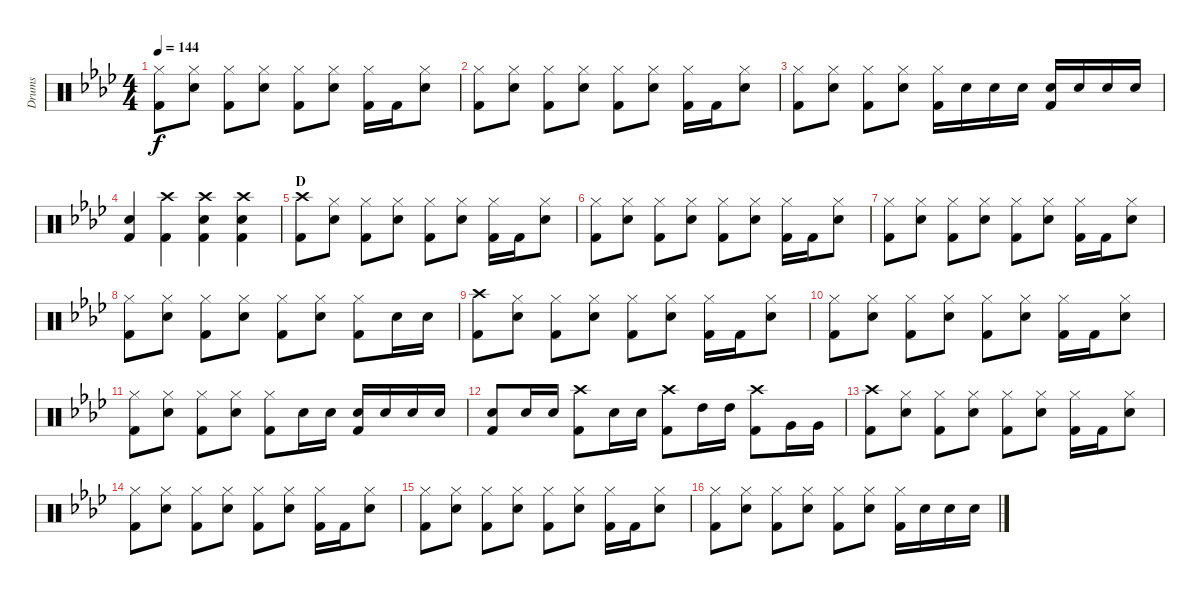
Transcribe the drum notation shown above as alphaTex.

\track ("Drums" "Drums") {instrument percussion}
\staff {score}
\articulation defaults
\ts (4 4)
\tempo 144
\clef neutral
\ks ab
("Hi-Hat (closed)" "Kick (hit) 2").8{dy f} ("Hi-Hat (closed)" "Snare (hit) 2").8 ("Hi-Hat (closed)" "Kick (hit) 2").8 ("Hi-Hat (closed)" "Snare (hit) 2").8 ("Hi-Hat (closed)" "Kick (hit) 2").8 ("Hi-Hat (closed)" "Snare (hit) 2").8 ("Hi-Hat (closed)" "Kick (hit) 2").16 "Kick (hit) 2".16 ("Hi-Hat (closed)" "Snare (hit) 2").8 |
("Hi-Hat (closed)" "Kick (hit) 2").8 ("Hi-Hat (closed)" "Snare (hit) 2").8 ("Hi-Hat (closed)" "Kick (hit) 2").8 ("Hi-Hat (closed)" "Snare (hit) 2").8 ("Hi-Hat (closed)" "Kick (hit) 2").8 ("Hi-Hat (closed)" "Snare (hit) 2").8 ("Hi-Hat (closed)" "Kick (hit) 2").16 "Kick (hit) 2".16 ("Hi-Hat (closed)" "Snare (hit) 2").8 |
("Hi-Hat (closed)" "Kick (hit) 2").8 ("Hi-Hat (closed)" "Snare (hit) 2").8 ("Hi-Hat (closed)" "Kick (hit) 2").8 ("Hi-Hat (closed)" "Snare (hit) 2").8 ("Hi-Hat (closed)" "Kick (hit) 2").16 "Snare (hit) 2".16 "Snare (hit) 2".16 "Snare (hit) 2".16 ("Snare (hit) 2" "Kick (hit) 2").16 "Snare (hit) 2".16 "Snare (hit) 2".16 "Snare (hit) 2".16 |
("Snare (hit) 2" "Kick (hit) 2").4 ("Crash high (hit)" "Kick (hit) 2").4 ("Crash high (hit)" "Snare (hit) 2" "Kick (hit) 2").4 ("Crash high (hit)" "Snare (hit) 2" "Kick (hit) 2").4 |
\section ("" "D")
("Crash high (hit)" "Kick (hit) 2").8 ("Hi-Hat (closed)" "Snare (hit) 2").8 ("Hi-Hat (closed)" "Kick (hit) 2").8 ("Hi-Hat (closed)" "Snare (hit) 2").8 ("Hi-Hat (closed)" "Kick (hit) 2").8 ("Hi-Hat (closed)" "Snare (hit) 2").8 ("Hi-Hat (closed)" "Kick (hit) 2").16 "Kick (hit) 2".16 ("Hi-Hat (closed)" "Snare (hit) 2").8 |
("Hi-Hat (closed)" "Kick (hit) 2").8 ("Hi-Hat (closed)" "Snare (hit) 2").8 ("Hi-Hat (closed)" "Kick (hit) 2").8 ("Hi-Hat (closed)" "Snare (hit) 2").8 ("Hi-Hat (closed)" "Kick (hit) 2").8 ("Hi-Hat (closed)" "Snare (hit) 2").8 ("Hi-Hat (closed)" "Kick (hit) 2").16 "Kick (hit) 2".16 ("Hi-Hat (closed)" "Snare (hit) 2").8 |
("Hi-Hat (closed)" "Kick (hit) 2").8 ("Hi-Hat (closed)" "Snare (hit) 2").8 ("Hi-Hat (closed)" "Kick (hit) 2").8 ("Hi-Hat (closed)" "Snare (hit) 2").8 ("Hi-Hat (closed)" "Kick (hit) 2").8 ("Hi-Hat (closed)" "Snare (hit) 2").8 ("Hi-Hat (closed)" "Kick (hit) 2").16 "Kick (hit) 2".16 ("Hi-Hat (closed)" "Snare (hit) 2").8 |
("Hi-Hat (closed)" "Kick (hit) 2").8 ("Hi-Hat (closed)" "Snare (hit) 2").8 ("Hi-Hat (closed)" "Kick (hit) 2").8 ("Hi-Hat (closed)" "Snare (hit) 2").8 ("Hi-Hat (closed)" "Kick (hit) 2").8 ("Hi-Hat (closed)" "Snare (hit) 2").8 ("Hi-Hat (closed)" "Kick (hit) 2").8 "Snare (hit) 2".16 "Snare (hit) 2".16 |
("Crash high (hit)" "Kick (hit) 2").8 ("Hi-Hat (closed)" "Snare (hit) 2").8 ("Hi-Hat (closed)" "Kick (hit) 2").8 ("Hi-Hat (closed)" "Snare (hit) 2").8 ("Hi-Hat (closed)" "Kick (hit) 2").8 ("Hi-Hat (closed)" "Snare (hit) 2").8 ("Hi-Hat (closed)" "Kick (hit) 2").16 "Kick (hit) 2".16 ("Hi-Hat (closed)" "Snare (hit) 2").8 |
("Hi-Hat (closed)" "Kick (hit) 2").8 ("Hi-Hat (closed)" "Snare (hit) 2").8 ("Hi-Hat (closed)" "Kick (hit) 2").8 ("Hi-Hat (closed)" "Snare (hit) 2").8 ("Hi-Hat (closed)" "Kick (hit) 2").8 ("Hi-Hat (closed)" "Snare (hit) 2").8 ("Hi-Hat (closed)" "Kick (hit) 2").16 "Kick (hit) 2".16 ("Hi-Hat (closed)" "Snare (hit) 2").8 |
("Hi-Hat (closed)" "Kick (hit) 2").8 ("Hi-Hat (closed)" "Snare (hit) 2").8 ("Hi-Hat (closed)" "Kick (hit) 2").8 ("Hi-Hat (closed)" "Snare (hit) 2").8 ("Hi-Hat (closed)" "Kick (hit) 2").8 "Snare (hit) 2".16 "Snare (hit) 2".16 ("Snare (hit) 2" "Kick (hit) 2").16 "Snare (hit) 2".16 "Snare (hit) 2".16 "Snare (hit) 2".16 |
("Snare (hit) 2" "Kick (hit) 2").8 "Snare (hit) 2".16 "Snare (hit) 2".16 ("Crash high (hit)" "Kick (hit) 2").8 "Snare (hit) 2".16 "Snare (hit) 2".16 ("Crash high (hit)" "Kick (hit) 2").8 "High Tom (hit)".16 "High Tom (hit)".16 ("Crash high (hit)" "Kick (hit) 2").8 "Very Low Tom (hit)".16 "Very Low Tom (hit)".16 |
("Crash high (hit)" "Kick (hit) 2").8 ("Hi-Hat (closed)" "Snare (hit) 2").8 ("Hi-Hat (closed)" "Kick (hit) 2").8 ("Hi-Hat (closed)" "Snare (hit) 2").8 ("Hi-Hat (closed)" "Kick (hit) 2").8 ("Hi-Hat (closed)" "Snare (hit) 2").8 ("Hi-Hat (closed)" "Kick (hit) 2").16 "Kick (hit) 2".16 ("Hi-Hat (closed)" "Snare (hit) 2").8 |
("Hi-Hat (closed)" "Kick (hit) 2").8 ("Hi-Hat (closed)" "Snare (hit) 2").8 ("Hi-Hat (closed)" "Kick (hit) 2").8 ("Hi-Hat (closed)" "Snare (hit) 2").8 ("Hi-Hat (closed)" "Kick (hit) 2").8 ("Hi-Hat (closed)" "Snare (hit) 2").8 ("Hi-Hat (closed)" "Kick (hit) 2").16 "Kick (hit) 2".16 ("Hi-Hat (closed)" "Snare (hit) 2").8 |
("Hi-Hat (closed)" "Kick (hit) 2").8 ("Hi-Hat (closed)" "Snare (hit) 2").8 ("Hi-Hat (closed)" "Kick (hit) 2").8 ("Hi-Hat (closed)" "Snare (hit) 2").8 ("Hi-Hat (closed)" "Kick (hit) 2").8 ("Hi-Hat (closed)" "Snare (hit) 2").8 ("Hi-Hat (closed)" "Kick (hit) 2").16 "Kick (hit) 2".16 ("Hi-Hat (closed)" "Snare (hit) 2").8 |
("Hi-Hat (closed)" "Kick (hit) 2").8 ("Hi-Hat (closed)" "Snare (hit) 2").8 ("Hi-Hat (closed)" "Kick (hit) 2").8 ("Hi-Hat (closed)" "Snare (hit) 2").8 ("Hi-Hat (closed)" "Kick (hit) 2").8 ("Hi-Hat (closed)" "Snare (hit) 2").8 ("Hi-Hat (closed)" "Kick (hit) 2").16 "Snare (hit) 2".16 "Snare (hit) 2".16 "Snare (hit) 2".16
